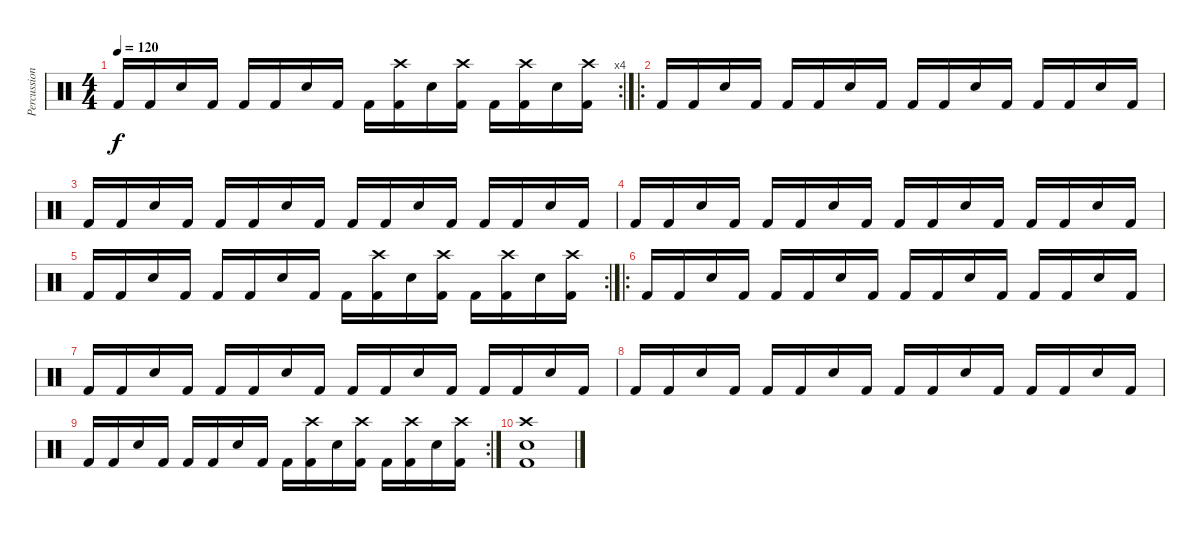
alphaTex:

\track ("Percussion" "Percussion") {instrument percussion}
\staff {score}
\articulation defaults
\rc 4
\ts (4 4)
\tempo 120
\clef neutral
\ks c "Kick (hit) 2".16{dy f} "Kick (hit) 2".16 "Snare (hit) 2".16 "Kick (hit) 2".16 "Kick (hit) 2".16 "Kick (hit) 2".16 "Snare (hit) 2".16 "Kick (hit) 2".16 "Kick (hit) 2".16
("Crash high (hit)" "Kick (hit) 2").16 "Snare (hit) 2".16 ("Crash high (hit)" "Kick (hit) 2").16 "Kick (hit) 2".16 ("Crash high (hit)" "Kick (hit) 2").16 "Snare (hit) 2".16 ("Crash high (hit)" "Kick (hit) 2").16 |
\ro "Kick (hit) 2".16 "Kick (hit) 2".16 "Snare (hit) 2".16 "Kick (hit) 2".16 "Kick (hit) 2".16 "Kick (hit) 2".16 "Snare (hit) 2".16 "Kick (hit) 2".16 "Kick (hit) 2".16 "Kick (hit) 2".16 "Snare (hit) 2".16 "Kick (hit) 2".16 "Kick (hit) 2".16 "Kick (hit) 2".16 "Snare (hit) 2".16 "Kick (hit) 2".16
|
"Kick (hit) 2".16 "Kick (hit) 2".16 "Snare (hit) 2".16 "Kick (hit) 2".16 "Kick (hit) 2".16 "Kick (hit) 2".16 "Snare (hit) 2".16 "Kick (hit) 2".16 "Kick (hit) 2".16 "Kick (hit) 2".16 "Snare (hit) 2".16 "Kick (hit) 2".16 "Kick (hit) 2".16 "Kick (hit) 2".16 "Snare (hit) 2".16 "Kick (hit) 2".16 |
"Kick (hit) 2".16 "Kick (hit) 2".16 "Snare (hit) 2".16 "Kick (hit) 2".16 "Kick (hit) 2".16 "Kick (hit) 2".16 "Snare (hit) 2".16 "Kick (hit) 2".16 "Kick (hit) 2".16 "Kick (hit) 2".16 "Snare (hit) 2".16 "Kick (hit) 2".16 "Kick (hit) 2".16 "Kick (hit) 2".16 "Snare (hit) 2".16 "Kick (hit) 2".16 |
\rc 2 "Kick (hit) 2".16 "Kick (hit) 2".16 "Snare (hit) 2".16 "Kick (hit) 2".16 "Kick (hit) 2".16 "Kick (hit) 2".16 "Snare (hit) 2".16 "Kick (hit) 2".16 "Kick (hit) 2".16
("Crash high (hit)" "Kick (hit) 2").16 "Snare (hit) 2".16 ("Crash high (hit)" "Kick (hit) 2").16 "Kick (hit) 2".16 ("Crash high (hit)" "Kick (hit) 2").16 "Snare (hit) 2".16 ("Crash high (hit)" "Kick (hit) 2").16 |
\ro "Kick (hit) 2".16 "Kick (hit) 2".16 "Snare (hit) 2".16 "Kick (hit) 2".16 "Kick (hit) 2".16 "Kick (hit) 2".16 "Snare (hit) 2".16 "Kick (hit) 2".16 "Kick (hit) 2".16 "Kick (hit) 2".16 "Snare (hit) 2".16 "Kick (hit) 2".16 "Kick (hit) 2".16 "Kick (hit) 2".16 "Snare (hit) 2".16 "Kick (hit) 2".16
|
"Kick (hit) 2".16 "Kick (hit) 2".16 "Snare (hit) 2".16 "Kick (hit) 2".16 "Kick (hit) 2".16 "Kick (hit) 2".16 "Snare (hit) 2".16 "Kick (hit) 2".16 "Kick (hit) 2".16 "Kick (hit) 2".16 "Snare (hit) 2".16 "Kick (hit) 2".16 "Kick (hit) 2".16 "Kick (hit) 2".16 "Snare (hit) 2".16 "Kick (hit) 2".16 |
"Kick (hit) 2".16 "Kick (hit) 2".16 "Snare (hit) 2".16 "Kick (hit) 2".16 "Kick (hit) 2".16 "Kick (hit) 2".16 "Snare (hit) 2".16 "Kick (hit) 2".16 "Kick (hit) 2".16 "Kick (hit) 2".16 "Snare (hit) 2".16 "Kick (hit) 2".16 "Kick (hit) 2".16 "Kick (hit) 2".16 "Snare (hit) 2".16 "Kick (hit) 2".16 |
\rc 2 "Kick (hit) 2".16 "Kick (hit) 2".16 "Snare (hit) 2".16 "Kick (hit) 2".16 "Kick (hit) 2".16 "Kick (hit) 2".16 "Snare (hit) 2".16 "Kick (hit) 2".16 "Kick (hit) 2".16
("Crash high (hit)" "Kick (hit) 2").16 "Snare (hit) 2".16 ("Crash high (hit)" "Kick (hit) 2").16 "Kick (hit) 2".16 ("Crash high (hit)" "Kick (hit) 2").16 "Snare (hit) 2".16 ("Crash high (hit)" "Kick (hit) 2").16 |
("Crash high (hit)" "Kick (hit) 2" "Snare (hit) 2").1
